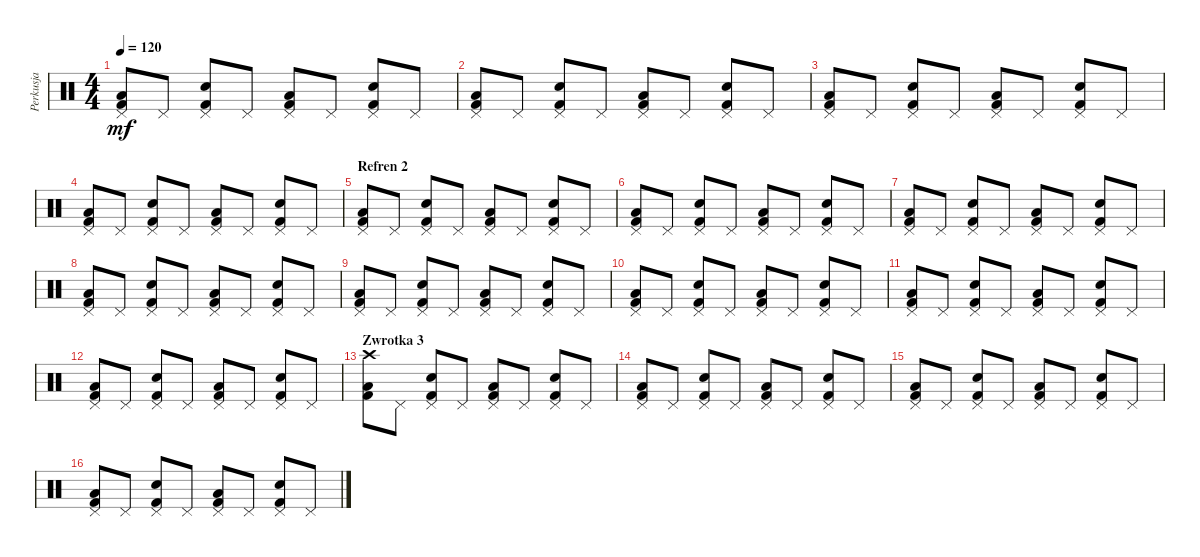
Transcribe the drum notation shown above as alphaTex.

\track ("Perkusja" "Perkusja") {instrument percussion}
\staff {score}
\articulation defaults
\ts (4 4)
\tempo 120
\clef neutral
\ks c
("Pedal Hi-Hat (hit)" "Low Floor Tom (hit)" "Kick (hit) 2").8{dy mf} "Pedal Hi-Hat (hit)".8 ("Pedal Hi-Hat (hit)" "Electric Snare (hit)" "Kick (hit) 2").8 "Pedal Hi-Hat (hit)".8 ("Pedal Hi-Hat (hit)" "Low Floor Tom (hit)" "Kick (hit) 2").8 "Pedal Hi-Hat (hit)".8 ("Pedal Hi-Hat (hit)" "Electric Snare (hit)" "Kick (hit) 2").8 "Pedal Hi-Hat (hit)".8 |
("Pedal Hi-Hat (hit)" "Low Floor Tom (hit)" "Kick (hit) 2").8 "Pedal Hi-Hat (hit)".8 ("Pedal Hi-Hat (hit)" "Electric Snare (hit)" "Kick (hit) 2").8 "Pedal Hi-Hat (hit)".8 ("Pedal Hi-Hat (hit)" "Low Floor Tom (hit)" "Kick (hit) 2").8 "Pedal Hi-Hat (hit)".8 ("Pedal Hi-Hat (hit)" "Electric Snare (hit)" "Kick (hit) 2").8 "Pedal Hi-Hat (hit)".8 |
("Pedal Hi-Hat (hit)" "Low Floor Tom (hit)" "Kick (hit) 2").8 "Pedal Hi-Hat (hit)".8 ("Pedal Hi-Hat (hit)" "Electric Snare (hit)" "Kick (hit) 2").8 "Pedal Hi-Hat (hit)".8 ("Pedal Hi-Hat (hit)" "Low Floor Tom (hit)" "Kick (hit) 2").8 "Pedal Hi-Hat (hit)".8 ("Pedal Hi-Hat (hit)" "Electric Snare (hit)" "Kick (hit) 2").8 "Pedal Hi-Hat (hit)".8 |
("Pedal Hi-Hat (hit)" "Low Floor Tom (hit)" "Kick (hit) 2").8 "Pedal Hi-Hat (hit)".8 ("Pedal Hi-Hat (hit)" "Electric Snare (hit)" "Kick (hit) 2").8 "Pedal Hi-Hat (hit)".8 ("Pedal Hi-Hat (hit)" "Low Floor Tom (hit)" "Kick (hit) 2").8 "Pedal Hi-Hat (hit)".8 ("Pedal Hi-Hat (hit)" "Electric Snare (hit)" "Kick (hit) 2").8 "Pedal Hi-Hat (hit)".8 |
\section ("" "Refren 2")
("Pedal Hi-Hat (hit)" "Low Floor Tom (hit)" "Kick (hit) 2").8 "Pedal Hi-Hat (hit)".8 ("Pedal Hi-Hat (hit)" "Electric Snare (hit)" "Kick (hit) 2").8 "Pedal Hi-Hat (hit)".8 ("Pedal Hi-Hat (hit)" "Low Floor Tom (hit)" "Kick (hit) 2").8 "Pedal Hi-Hat (hit)".8 ("Pedal Hi-Hat (hit)" "Electric Snare (hit)" "Kick (hit) 2").8 "Pedal Hi-Hat (hit)".8 |
("Pedal Hi-Hat (hit)" "Low Floor Tom (hit)" "Kick (hit) 2").8 "Pedal Hi-Hat (hit)".8 ("Pedal Hi-Hat (hit)" "Electric Snare (hit)" "Kick (hit) 2").8 "Pedal Hi-Hat (hit)".8 ("Pedal Hi-Hat (hit)" "Low Floor Tom (hit)" "Kick (hit) 2").8 "Pedal Hi-Hat (hit)".8 ("Pedal Hi-Hat (hit)" "Electric Snare (hit)" "Kick (hit) 2").8 "Pedal Hi-Hat (hit)".8 |
("Pedal Hi-Hat (hit)" "Low Floor Tom (hit)" "Kick (hit) 2").8 "Pedal Hi-Hat (hit)".8 ("Pedal Hi-Hat (hit)" "Electric Snare (hit)" "Kick (hit) 2").8 "Pedal Hi-Hat (hit)".8 ("Pedal Hi-Hat (hit)" "Low Floor Tom (hit)" "Kick (hit) 2").8 "Pedal Hi-Hat (hit)".8 ("Pedal Hi-Hat (hit)" "Electric Snare (hit)" "Kick (hit) 2").8 "Pedal Hi-Hat (hit)".8 |
("Pedal Hi-Hat (hit)" "Low Floor Tom (hit)" "Kick (hit) 2").8 "Pedal Hi-Hat (hit)".8 ("Pedal Hi-Hat (hit)" "Electric Snare (hit)" "Kick (hit) 2").8 "Pedal Hi-Hat (hit)".8 ("Pedal Hi-Hat (hit)" "Low Floor Tom (hit)" "Kick (hit) 2").8 "Pedal Hi-Hat (hit)".8 ("Pedal Hi-Hat (hit)" "Electric Snare (hit)" "Kick (hit) 2").8 "Pedal Hi-Hat (hit)".8 |
("Pedal Hi-Hat (hit)" "Low Floor Tom (hit)" "Kick (hit) 2").8 "Pedal Hi-Hat (hit)".8 ("Pedal Hi-Hat (hit)" "Electric Snare (hit)" "Kick (hit) 2").8 "Pedal Hi-Hat (hit)".8 ("Pedal Hi-Hat (hit)" "Low Floor Tom (hit)" "Kick (hit) 2").8 "Pedal Hi-Hat (hit)".8 ("Pedal Hi-Hat (hit)" "Electric Snare (hit)" "Kick (hit) 2").8 "Pedal Hi-Hat (hit)".8 |
("Pedal Hi-Hat (hit)" "Low Floor Tom (hit)" "Kick (hit) 2").8 "Pedal Hi-Hat (hit)".8 ("Pedal Hi-Hat (hit)" "Electric Snare (hit)" "Kick (hit) 2").8 "Pedal Hi-Hat (hit)".8 ("Pedal Hi-Hat (hit)" "Low Floor Tom (hit)" "Kick (hit) 2").8 "Pedal Hi-Hat (hit)".8 ("Pedal Hi-Hat (hit)" "Electric Snare (hit)" "Kick (hit) 2").8 "Pedal Hi-Hat (hit)".8 |
("Pedal Hi-Hat (hit)" "Low Floor Tom (hit)" "Kick (hit) 2").8 "Pedal Hi-Hat (hit)".8 ("Pedal Hi-Hat (hit)" "Electric Snare (hit)" "Kick (hit) 2").8 "Pedal Hi-Hat (hit)".8 ("Pedal Hi-Hat (hit)" "Low Floor Tom (hit)" "Kick (hit) 2").8 "Pedal Hi-Hat (hit)".8 ("Pedal Hi-Hat (hit)" "Electric Snare (hit)" "Kick (hit) 2").8 "Pedal Hi-Hat (hit)".8 |
("Pedal Hi-Hat (hit)" "Low Floor Tom (hit)" "Kick (hit) 2").8 "Pedal Hi-Hat (hit)".8 ("Pedal Hi-Hat (hit)" "Electric Snare (hit)" "Kick (hit) 2").8 "Pedal Hi-Hat (hit)".8 ("Pedal Hi-Hat (hit)" "Low Floor Tom (hit)" "Kick (hit) 2").8 "Pedal Hi-Hat (hit)".8 ("Pedal Hi-Hat (hit)" "Electric Snare (hit)" "Kick (hit) 2").8 "Pedal Hi-Hat (hit)".8 |
\section ("" "Zwrotka 3")
("Crash high (hit)" "Low Floor Tom (hit)" "Kick (hit) 2").8 "Pedal Hi-Hat (hit)".8 ("Pedal Hi-Hat (hit)" "Electric Snare (hit)" "Kick (hit) 2").8 "Pedal Hi-Hat (hit)".8 ("Pedal Hi-Hat (hit)" "Low Floor Tom (hit)" "Kick (hit) 2").8 "Pedal Hi-Hat (hit)".8 ("Pedal Hi-Hat (hit)" "Electric Snare (hit)" "Kick (hit) 2").8 "Pedal Hi-Hat (hit)".8 |
("Pedal Hi-Hat (hit)" "Low Floor Tom (hit)" "Kick (hit) 2").8 "Pedal Hi-Hat (hit)".8 ("Pedal Hi-Hat (hit)" "Electric Snare (hit)" "Kick (hit) 2").8 "Pedal Hi-Hat (hit)".8 ("Pedal Hi-Hat (hit)" "Low Floor Tom (hit)" "Kick (hit) 2").8 "Pedal Hi-Hat (hit)".8 ("Pedal Hi-Hat (hit)" "Electric Snare (hit)" "Kick (hit) 2").8 "Pedal Hi-Hat (hit)".8 |
("Pedal Hi-Hat (hit)" "Low Floor Tom (hit)" "Kick (hit) 2").8 "Pedal Hi-Hat (hit)".8 ("Pedal Hi-Hat (hit)" "Electric Snare (hit)" "Kick (hit) 2").8 "Pedal Hi-Hat (hit)".8 ("Pedal Hi-Hat (hit)" "Low Floor Tom (hit)" "Kick (hit) 2").8 "Pedal Hi-Hat (hit)".8 ("Pedal Hi-Hat (hit)" "Electric Snare (hit)" "Kick (hit) 2").8 "Pedal Hi-Hat (hit)".8 |
("Pedal Hi-Hat (hit)" "Low Floor Tom (hit)" "Kick (hit) 2").8 "Pedal Hi-Hat (hit)".8 ("Pedal Hi-Hat (hit)" "Electric Snare (hit)" "Kick (hit) 2").8 "Pedal Hi-Hat (hit)".8 ("Pedal Hi-Hat (hit)" "Low Floor Tom (hit)" "Kick (hit) 2").8 "Pedal Hi-Hat (hit)".8 ("Pedal Hi-Hat (hit)" "Electric Snare (hit)" "Kick (hit) 2").8 "Pedal Hi-Hat (hit)".8
